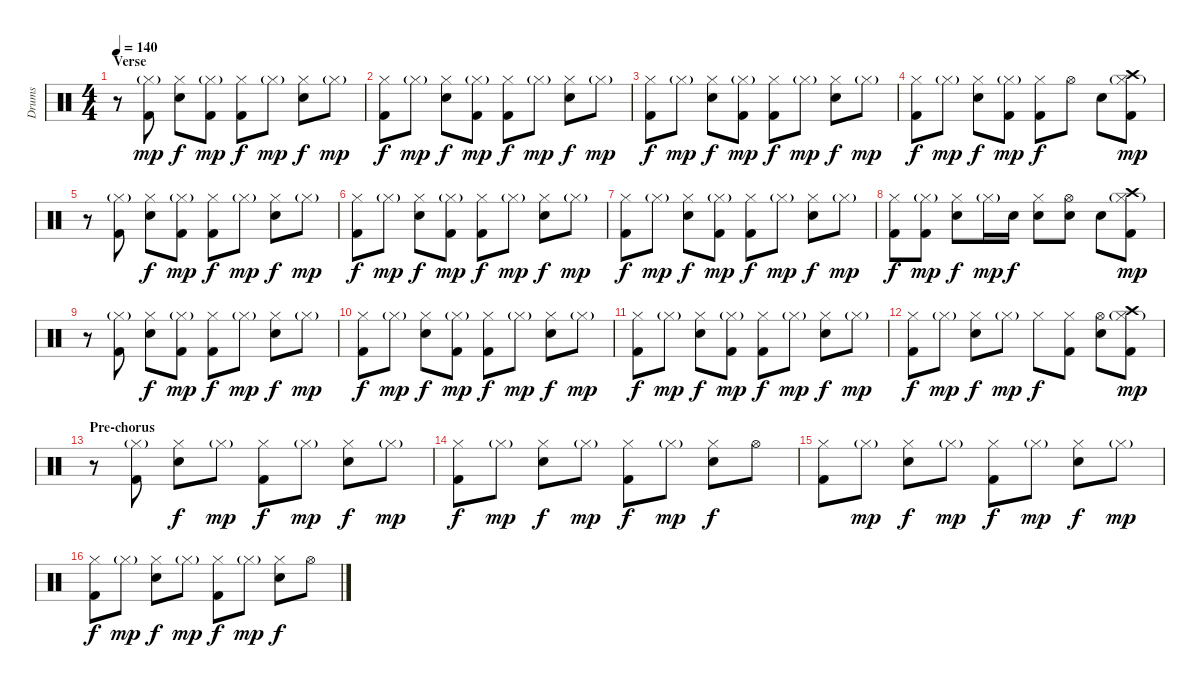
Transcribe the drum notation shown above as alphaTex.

\track ("Drums" "Drums") {instrument percussion}
\staff {score}
\articulation defaults
\ts (4 4)
\section ("" "Verse")
\tempo 140
\clef neutral
\ks c
r.8{dy mp} ("Hi-Hat (closed)"{g} "Kick (hit) 2").8 ("Hi-Hat (closed)" "Electric Snare (hit)").8{dy f} ("Hi-Hat (closed)"{g} "Kick (hit) 2").8{dy mp} ("Hi-Hat (closed)" "Kick (hit) 2").8{dy f} "Hi-Hat (closed)"{g}.8{dy mp} ("Hi-Hat (closed)" "Electric Snare (hit)").8{dy f} "Hi-Hat (closed)"{g}.8{dy mp} |
("Hi-Hat (closed)" "Kick (hit) 2").8{dy f} "Hi-Hat (closed)"{g}.8{dy mp} ("Hi-Hat (closed)" "Electric Snare (hit)").8{dy f} ("Hi-Hat (closed)"{g} "Kick (hit) 2").8{dy mp} ("Hi-Hat (closed)" "Kick (hit) 2").8{dy f} "Hi-Hat (closed)"{g}.8{dy mp} ("Hi-Hat (closed)" "Electric Snare (hit)").8{dy f} "Hi-Hat (closed)"{g}.8{dy mp} |
("Hi-Hat (closed)" "Kick (hit) 2").8{dy f} "Hi-Hat (closed)"{g}.8{dy mp} ("Hi-Hat (closed)" "Electric Snare (hit)").8{dy f} ("Hi-Hat (closed)"{g} "Kick (hit) 2").8{dy mp} ("Hi-Hat (closed)" "Kick (hit) 2").8{dy f} "Hi-Hat (closed)"{g}.8{dy mp} ("Hi-Hat (closed)" "Electric Snare (hit)").8{dy f} "Hi-Hat (closed)"{g}.8{dy mp} |
("Hi-Hat (closed)" "Kick (hit) 2").8{dy f} "Hi-Hat (closed)"{g}.8{dy mp} ("Hi-Hat (closed)" "Electric Snare (hit)").8{dy f} ("Hi-Hat (closed)"{g} "Kick (hit) 2").8{dy mp} ("Hi-Hat (closed)" "Kick (hit) 2").8{dy f} "Hi-Hat (open)".8 "Electric Snare (hit)".8 ("Hi-Hat (closed)"{g} "Kick (hit) 2" "Crash high (hit)").8{dy mp} |
r.8 ("Hi-Hat (closed)"{g} "Kick (hit) 2").8 ("Hi-Hat (closed)" "Electric Snare (hit)").8{dy f} ("Hi-Hat (closed)"{g} "Kick (hit) 2").8{dy mp} ("Hi-Hat (closed)" "Kick (hit) 2").8{dy f} "Hi-Hat (closed)"{g}.8{dy mp} ("Hi-Hat (closed)" "Electric Snare (hit)").8{dy f} "Hi-Hat (closed)"{g}.8{dy mp} |
("Hi-Hat (closed)" "Kick (hit) 2").8{dy f} "Hi-Hat (closed)"{g}.8{dy mp} ("Hi-Hat (closed)" "Electric Snare (hit)").8{dy f} ("Hi-Hat (closed)"{g} "Kick (hit) 2").8{dy mp} ("Hi-Hat (closed)" "Kick (hit) 2").8{dy f} "Hi-Hat (closed)"{g}.8{dy mp} ("Hi-Hat (closed)" "Electric Snare (hit)").8{dy f} "Hi-Hat (closed)"{g}.8{dy mp} |
("Hi-Hat (closed)" "Kick (hit) 2").8{dy f} "Hi-Hat (closed)"{g}.8{dy mp} ("Hi-Hat (closed)" "Electric Snare (hit)").8{dy f} ("Hi-Hat (closed)"{g} "Kick (hit) 2").8{dy mp} ("Hi-Hat (closed)" "Kick (hit) 2").8{dy f} "Hi-Hat (closed)"{g}.8{dy mp} ("Hi-Hat (closed)" "Electric Snare (hit)").8{dy f} "Hi-Hat (closed)"{g}.8{dy mp} |
("Hi-Hat (closed)" "Kick (hit) 2").8{dy f} ("Hi-Hat (closed)"{g} "Kick (hit) 2").8{dy mp} ("Hi-Hat (closed)" "Electric Snare (hit)").8{dy f} "Hi-Hat (closed)"{g}.16{dy mp} "Electric Snare (hit)".16{dy f} ("Hi-Hat (closed)" "Electric Snare (hit)").8 ("Hi-Hat (open)" "Electric Snare (hit)").8 "Electric Snare (hit)".8 ("Hi-Hat (closed)"{g} "Kick (hit) 2" "Crash high (hit)").8{dy mp} |
r.8 ("Hi-Hat (closed)"{g} "Kick (hit) 2").8 ("Hi-Hat (closed)" "Electric Snare (hit)").8{dy f} ("Hi-Hat (closed)"{g} "Kick (hit) 2").8{dy mp} ("Hi-Hat (closed)" "Kick (hit) 2").8{dy f} "Hi-Hat (closed)"{g}.8{dy mp} ("Hi-Hat (closed)" "Electric Snare (hit)").8{dy f} "Hi-Hat (closed)"{g}.8{dy mp} |
("Hi-Hat (closed)" "Kick (hit) 2").8{dy f} "Hi-Hat (closed)"{g}.8{dy mp} ("Hi-Hat (closed)" "Electric Snare (hit)").8{dy f} ("Hi-Hat (closed)"{g} "Kick (hit) 2").8{dy mp} ("Hi-Hat (closed)" "Kick (hit) 2").8{dy f} "Hi-Hat (closed)"{g}.8{dy mp} ("Hi-Hat (closed)" "Electric Snare (hit)").8{dy f} "Hi-Hat (closed)"{g}.8{dy mp} |
("Hi-Hat (closed)" "Kick (hit) 2").8{dy f} "Hi-Hat (closed)"{g}.8{dy mp} ("Hi-Hat (closed)" "Electric Snare (hit)").8{dy f} ("Hi-Hat (closed)"{g} "Kick (hit) 2").8{dy mp} ("Hi-Hat (closed)" "Kick (hit) 2").8{dy f} "Hi-Hat (closed)"{g}.8{dy mp} ("Hi-Hat (closed)" "Electric Snare (hit)").8{dy f} "Hi-Hat (closed)"{g}.8{dy mp} |
("Hi-Hat (closed)" "Kick (hit) 2").8{dy f} "Hi-Hat (closed)"{g}.8{dy mp} ("Hi-Hat (closed)" "Electric Snare (hit)").8{dy f} "Hi-Hat (closed)"{g}.8{dy mp} "Hi-Hat (closed)".8{dy f} ("Hi-Hat (closed)" "Kick (hit) 2").8 ("Hi-Hat (open)" "Electric Snare (hit)").8 ("Hi-Hat (closed)"{g} "Kick (hit) 2" "Crash high (hit)").8{dy mp} |
\section ("" "Pre-chorus")
r.8 ("Hi-Hat (closed)"{g} "Kick (hit) 2").8 ("Hi-Hat (closed)" "Electric Snare (hit)").8{dy f} "Hi-Hat (closed)"{g}.8{dy mp} ("Hi-Hat (closed)" "Kick (hit) 2").8{dy f} "Hi-Hat (closed)"{g}.8{dy mp} ("Hi-Hat (closed)" "Electric Snare (hit)").8{dy f} "Hi-Hat (closed)"{g}.8{dy mp} |
("Hi-Hat (closed)" "Kick (hit) 2").8{dy f} "Hi-Hat (closed)"{g}.8{dy mp} ("Hi-Hat (closed)" "Electric Snare (hit)").8{dy f} "Hi-Hat (closed)"{g}.8{dy mp} ("Hi-Hat (closed)" "Kick (hit) 2").8{dy f} "Hi-Hat (closed)"{g}.8{dy mp} ("Hi-Hat (closed)" "Electric Snare (hit)").8{dy f} "Hi-Hat (open)".8 |
("Hi-Hat (closed)" "Kick (hit) 2").8 "Hi-Hat (closed)"{g}.8{dy mp} ("Hi-Hat (closed)" "Electric Snare (hit)").8{dy f} "Hi-Hat (closed)"{g}.8{dy mp} ("Hi-Hat (closed)" "Kick (hit) 2").8{dy f} "Hi-Hat (closed)"{g}.8{dy mp} ("Hi-Hat (closed)" "Electric Snare (hit)").8{dy f} "Hi-Hat (closed)"{g}.8{dy mp} |
("Hi-Hat (closed)" "Kick (hit) 2").8{dy f} "Hi-Hat (closed)"{g}.8{dy mp} ("Hi-Hat (closed)" "Electric Snare (hit)").8{dy f} "Hi-Hat (closed)"{g}.8{dy mp} ("Hi-Hat (closed)" "Kick (hit) 2").8{dy f} "Hi-Hat (closed)"{g}.8{dy mp} ("Hi-Hat (closed)" "Electric Snare (hit)").8{dy f} "Hi-Hat (open)".8
